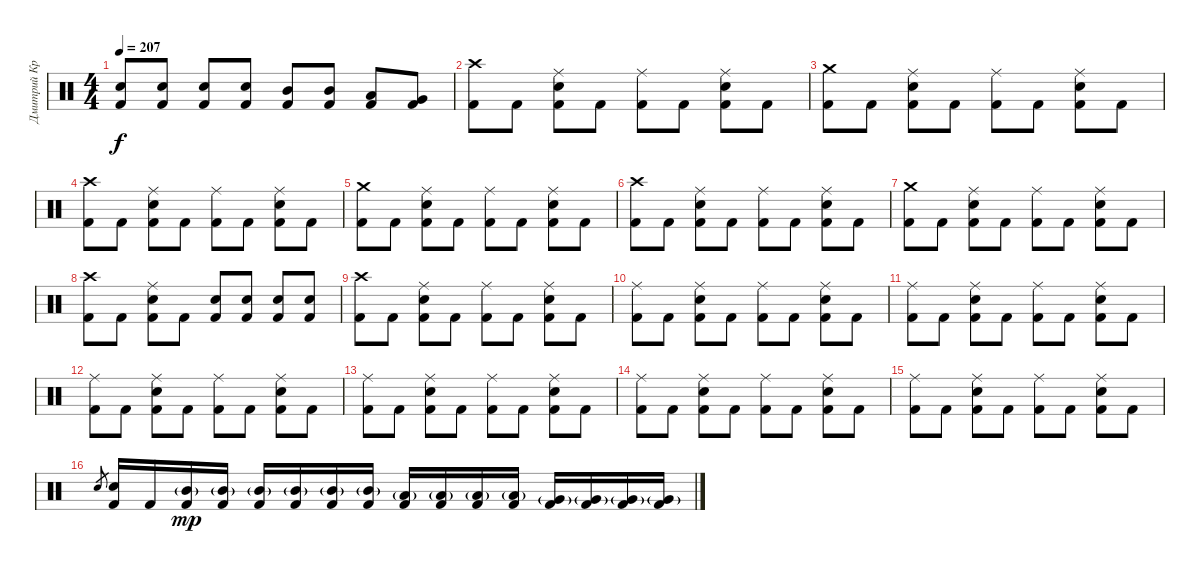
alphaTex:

\track ("Дмитрий Кривенков" "Дмитрий Кр") {instrument percussion}
\staff {score}
\articulation defaults
\ts (4 4)
\tempo 207
\clef neutral
\ks c
("Electric Snare (hit)" "Kick (hit) 2").8{dy f} ("Electric Snare (hit)" "Kick (hit) 2").8 ("Electric Snare (hit)" "Kick (hit) 2").8 ("Electric Snare (hit)" "Kick (hit) 2").8 ("Mid Tom (hit)" "Kick (hit) 2").8 ("Mid Tom (hit)" "Kick (hit) 2").8 ("Low Tom (hit)" "Kick (hit) 2").8 ("Very Low Tom (hit)" "Kick (hit) 2").8 |
("Crash high (hit)" "Kick (hit) 2").8 "Kick (hit) 2".8 ("Ride (middle)" "Electric Snare (hit)" "Kick (hit) 2").8 "Kick (hit) 2".8 ("Ride (middle)" "Kick (hit) 2").8 "Kick (hit) 2".8 ("Ride (middle)" "Electric Snare (hit)" "Kick (hit) 2").8 "Kick (hit) 2".8 |
("Crash medium (hit)" "Kick (hit) 2").8 "Kick (hit) 2".8 ("Ride (middle)" "Electric Snare (hit)" "Kick (hit) 2").8 "Kick (hit) 2".8 ("Ride (middle)" "Kick (hit) 2").8 "Kick (hit) 2".8 ("Ride (middle)" "Electric Snare (hit)" "Kick (hit) 2").8 "Kick (hit) 2".8 |
("Crash high (hit)" "Kick (hit) 2").8 "Kick (hit) 2".8 ("Ride (middle)" "Electric Snare (hit)" "Kick (hit) 2").8 "Kick (hit) 2".8 ("Ride (middle)" "Kick (hit) 2").8 "Kick (hit) 2".8 ("Ride (middle)" "Electric Snare (hit)" "Kick (hit) 2").8 "Kick (hit) 2".8 |
("Crash medium (hit)" "Kick (hit) 2").8 "Kick (hit) 2".8 ("Ride (middle)" "Electric Snare (hit)" "Kick (hit) 2").8 "Kick (hit) 2".8 ("Ride (middle)" "Kick (hit) 2").8 "Kick (hit) 2".8 ("Ride (middle)" "Electric Snare (hit)" "Kick (hit) 2").8 "Kick (hit) 2".8 |
("Crash high (hit)" "Kick (hit) 2").8 "Kick (hit) 2".8 ("Ride (middle)" "Electric Snare (hit)" "Kick (hit) 2").8 "Kick (hit) 2".8 ("Ride (middle)" "Kick (hit) 2").8 "Kick (hit) 2".8 ("Ride (middle)" "Electric Snare (hit)" "Kick (hit) 2").8 "Kick (hit) 2".8 |
("Crash medium (hit)" "Kick (hit) 2").8 "Kick (hit) 2".8 ("Ride (middle)" "Electric Snare (hit)" "Kick (hit) 2").8 "Kick (hit) 2".8 ("Ride (middle)" "Kick (hit) 2").8 "Kick (hit) 2".8 ("Ride (middle)" "Electric Snare (hit)" "Kick (hit) 2").8 "Kick (hit) 2".8 |
("Crash high (hit)" "Kick (hit) 2").8 "Kick (hit) 2".8 ("Ride (middle)" "Electric Snare (hit)" "Kick (hit) 2").8 "Kick (hit) 2".8 ("Electric Snare (hit)" "Kick (hit) 2").8 ("Electric Snare (hit)" "Kick (hit) 2").8 ("Electric Snare (hit)" "Kick (hit) 2").8 ("Electric Snare (hit)" "Kick (hit) 2").8 |
("Crash high (hit)" "Kick (hit) 2").8 "Kick (hit) 2".8 ("Ride (middle)" "Electric Snare (hit)" "Kick (hit) 2").8 "Kick (hit) 2".8 ("Ride (middle)" "Kick (hit) 2").8 "Kick (hit) 2".8 ("Ride (middle)" "Electric Snare (hit)" "Kick (hit) 2").8 "Kick (hit) 2".8 |
("Ride (middle)" "Kick (hit) 2").8 "Kick (hit) 2".8 ("Ride (middle)" "Electric Snare (hit)" "Kick (hit) 2").8 "Kick (hit) 2".8 ("Ride (middle)" "Kick (hit) 2").8 "Kick (hit) 2".8 ("Ride (middle)" "Electric Snare (hit)" "Kick (hit) 2").8 "Kick (hit) 2".8 |
("Ride (middle)" "Kick (hit) 2").8 "Kick (hit) 2".8 ("Ride (middle)" "Electric Snare (hit)" "Kick (hit) 2").8 "Kick (hit) 2".8 ("Ride (middle)" "Kick (hit) 2").8 "Kick (hit) 2".8 ("Ride (middle)" "Electric Snare (hit)" "Kick (hit) 2").8 "Kick (hit) 2".8 |
("Ride (middle)" "Kick (hit) 2").8 "Kick (hit) 2".8 ("Ride (middle)" "Electric Snare (hit)" "Kick (hit) 2").8 "Kick (hit) 2".8 ("Ride (middle)" "Kick (hit) 2").8 "Kick (hit) 2".8 ("Ride (middle)" "Electric Snare (hit)" "Kick (hit) 2").8 "Kick (hit) 2".8 |
("Ride (middle)" "Kick (hit) 2").8 "Kick (hit) 2".8 ("Ride (middle)" "Electric Snare (hit)" "Kick (hit) 2").8 "Kick (hit) 2".8 ("Ride (middle)" "Kick (hit) 2").8 "Kick (hit) 2".8 ("Ride (middle)" "Electric Snare (hit)" "Kick (hit) 2").8 "Kick (hit) 2".8 |
("Ride (middle)" "Kick (hit) 2").8 "Kick (hit) 2".8 ("Ride (middle)" "Electric Snare (hit)" "Kick (hit) 2").8 "Kick (hit) 2".8 ("Ride (middle)" "Kick (hit) 2").8 "Kick (hit) 2".8 ("Ride (middle)" "Electric Snare (hit)" "Kick (hit) 2").8 "Kick (hit) 2".8 |
("Ride (middle)" "Kick (hit) 2").8 "Kick (hit) 2".8 ("Ride (middle)" "Electric Snare (hit)" "Kick (hit) 2").8 "Kick (hit) 2".8 ("Ride (middle)" "Kick (hit) 2").8 "Kick (hit) 2".8 ("Ride (middle)" "Electric Snare (hit)" "Kick (hit) 2").8 "Kick (hit) 2".8 |
"Electric Snare (hit)".8{gr} ("Electric Snare (hit)" "Kick (hit) 2").16 "Kick (hit) 2".16 ("Mid Tom (hit)"{g} "Kick (hit) 2").16{dy mp} ("Mid Tom (hit)"{g} "Kick (hit) 2").16 ("Mid Tom (hit)"{g} "Kick (hit) 2").16 ("Mid Tom (hit)"{g} "Kick (hit) 2").16 ("Mid Tom (hit)"{g} "Kick (hit) 2").16 ("Mid Tom (hit)"{g} "Kick (hit) 2").16 ("Low Tom (hit)"{g} "Kick (hit) 2").16 ("Low Tom (hit)"{g} "Kick (hit) 2").16 ("Low Tom (hit)"{g} "Kick (hit) 2").16 ("Low Tom (hit)"{g} "Kick (hit) 2").16 ("Very Low Tom (hit)"{g} "Kick (hit) 2").16 ("Very Low Tom (hit)"{g} "Kick (hit) 2").16 ("Very Low Tom (hit)"{g} "Kick (hit) 2").16 ("Very Low Tom (hit)"{g} "Kick (hit) 2").16
